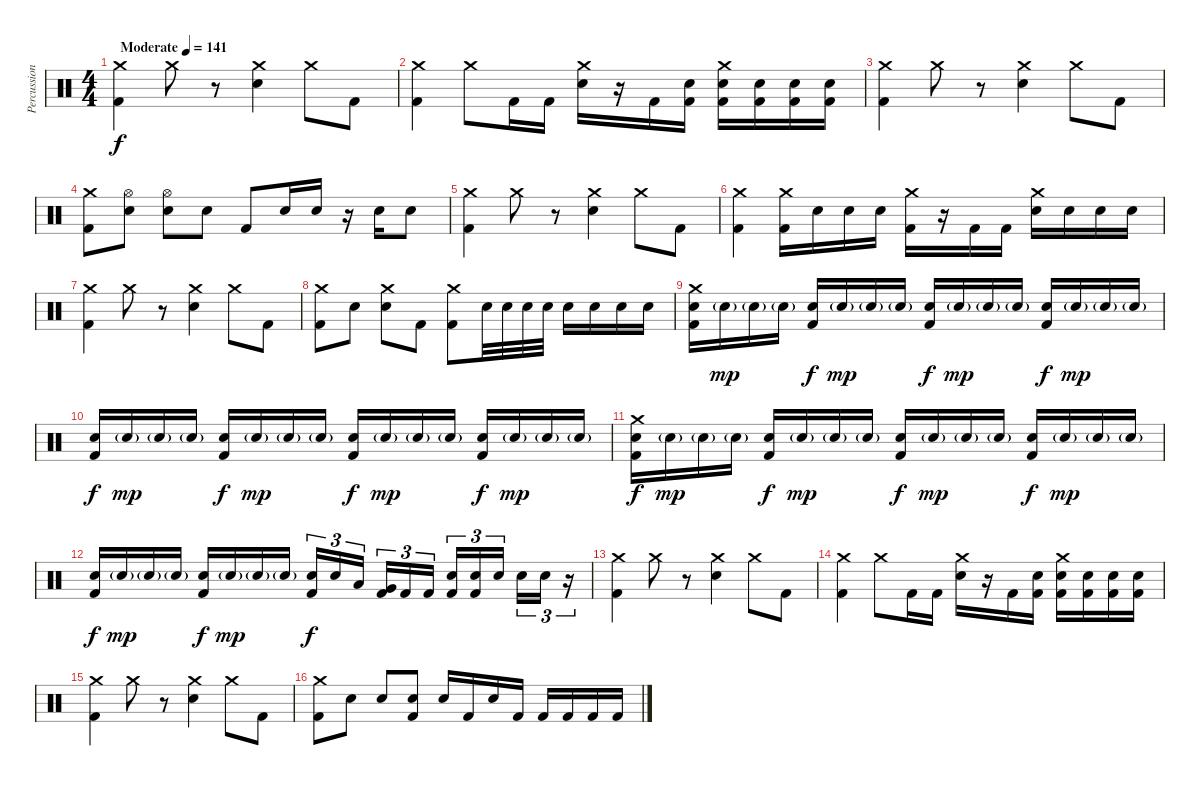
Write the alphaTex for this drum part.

\track ("Percussion" "Percussion") {instrument percussion}
\staff {score}
\articulation defaults
\ts (4 4)
\tempo (141 "Moderate")
\clef neutral
\ks c
("Crash medium (hit)" "Kick (hit) 2").4{dy f} "Crash medium (hit)".8 r.8 ("Crash medium (hit)" "Electric Snare (hit)").4 "Crash medium (hit)".8 "Kick (hit) 2".8 |
("Crash medium (hit)" "Kick (hit) 2").4 "Crash medium (hit)".8 "Kick (hit) 2".16 "Kick (hit) 2".16 ("Crash medium (hit)" "Electric Snare (hit)").16 r.16 "Kick (hit) 2".16 ("Electric Snare (hit)" "Kick (hit) 2").16 ("Crash medium (hit)" "Electric Snare (hit)" "Kick (hit) 2").16 ("Electric Snare (hit)" "Kick (hit) 2").16 ("Electric Snare (hit)" "Kick (hit) 2").16 ("Electric Snare (hit)" "Kick (hit) 2").16 |
("Crash medium (hit)" "Kick (hit) 2").4 "Crash medium (hit)".8 r.8 ("Crash medium (hit)" "Electric Snare (hit)").4 "Crash medium (hit)".8 "Kick (hit) 2".8 |
("Crash medium (hit)" "Kick (hit) 2").8 ("Hi-Hat (open)" "Electric Snare (hit)").8 ("Hi-Hat (open)" "Electric Snare (hit)").8 "Electric Snare (hit)".8 "Kick (hit) 2".8 "Electric Snare (hit)".16 "Electric Snare (hit)".16 r.16 "Electric Snare (hit)".16 "Electric Snare (hit)".8 |
("Crash medium (hit)" "Kick (hit) 2").4 "Crash medium (hit)".8 r.8 ("Crash medium (hit)" "Electric Snare (hit)").4 "Crash medium (hit)".8 "Kick (hit) 2".8 |
("Crash medium (hit)" "Kick (hit) 2").4 ("Crash medium (hit)" "Kick (hit) 2").16 "Electric Snare (hit)".16 "Electric Snare (hit)".16 "Electric Snare (hit)".16 ("Crash medium (hit)" "Kick (hit) 2").16 r.16 "Kick (hit) 2".16 "Kick (hit) 2".16 ("Crash medium (hit)" "Electric Snare (hit)").16 "Electric Snare (hit)".16 "Electric Snare (hit)".16 "Electric Snare (hit)".16 |
("Crash medium (hit)" "Kick (hit) 2").4 "Crash medium (hit)".8 r.8 ("Crash medium (hit)" "Electric Snare (hit)").4 "Crash medium (hit)".8 "Kick (hit) 2".8 |
("Crash medium (hit)" "Kick (hit) 2").8 "Electric Snare (hit)".8 ("Crash medium (hit)" "Electric Snare (hit)").8 "Kick (hit) 2".8 ("Crash medium (hit)" "Kick (hit) 2").8 "Electric Snare (hit)".32 "Electric Snare (hit)".32 "Electric Snare (hit)".32 "Electric Snare (hit)".32 "Electric Snare (hit)".16 "Electric Snare (hit)".16 "Electric Snare (hit)".16 "Electric Snare (hit)".16 |
("Electric Snare (hit)" "Crash medium (hit)" "Kick (hit) 2").16 "Electric Snare (hit)"{g}.16{dy mp} "Electric Snare (hit)"{g}.16 "Electric Snare (hit)"{g}.16 ("Electric Snare (hit)" "Kick (hit) 2").16{dy f} "Electric Snare (hit)"{g}.16{dy mp} "Electric Snare (hit)"{g}.16 "Electric Snare (hit)"{g}.16 ("Electric Snare (hit)" "Kick (hit) 2").16{dy f} "Electric Snare (hit)"{g}.16{dy mp} "Electric Snare (hit)"{g}.16 "Electric Snare (hit)"{g}.16 ("Electric Snare (hit)" "Kick (hit) 2").16{dy f} "Electric Snare (hit)"{g}.16{dy mp} "Electric Snare (hit)"{g}.16 "Electric Snare (hit)"{g}.16 |
("Electric Snare (hit)" "Kick (hit) 2").16{dy f} "Electric Snare (hit)"{g}.16{dy mp} "Electric Snare (hit)"{g}.16 "Electric Snare (hit)"{g}.16 ("Electric Snare (hit)" "Kick (hit) 2").16{dy f} "Electric Snare (hit)"{g}.16{dy mp} "Electric Snare (hit)"{g}.16 "Electric Snare (hit)"{g}.16 ("Electric Snare (hit)" "Kick (hit) 2").16{dy f} "Electric Snare (hit)"{g}.16{dy mp} "Electric Snare (hit)"{g}.16 "Electric Snare (hit)"{g}.16 ("Electric Snare (hit)" "Kick (hit) 2").16{dy f} "Electric Snare (hit)"{g}.16{dy mp} "Electric Snare (hit)"{g}.16 "Electric Snare (hit)"{g}.16 |
("Electric Snare (hit)" "Crash medium (hit)" "Kick (hit) 2").16{dy f} "Electric Snare (hit)"{g}.16{dy mp} "Electric Snare (hit)"{g}.16 "Electric Snare (hit)"{g}.16 ("Electric Snare (hit)" "Kick (hit) 2").16{dy f} "Electric Snare (hit)"{g}.16{dy mp} "Electric Snare (hit)"{g}.16 "Electric Snare (hit)"{g}.16 ("Electric Snare (hit)" "Kick (hit) 2").16{dy f} "Electric Snare (hit)"{g}.16{dy mp} "Electric Snare (hit)"{g}.16 "Electric Snare (hit)"{g}.16 ("Electric Snare (hit)" "Kick (hit) 2").16{dy f} "Electric Snare (hit)"{g}.16{dy mp} "Electric Snare (hit)"{g}.16 "Electric Snare (hit)"{g}.16 |
("Electric Snare (hit)" "Kick (hit) 2").16{dy f} "Electric Snare (hit)"{g}.16{dy mp} "Electric Snare (hit)"{g}.16 "Electric Snare (hit)"{g}.16 ("Electric Snare (hit)" "Kick (hit) 2").16{dy f} "Electric Snare (hit)"{g}.16{dy mp} "Electric Snare (hit)"{g}.16 "Electric Snare (hit)"{g}.16 ("Electric Snare (hit)" "Kick (hit) 2").16{tu (3 2) dy f} "Electric Snare (hit)".16{tu (3 2)} "Low Tom (hit)".16{tu (3 2) beam splitsecondary} ("Very Low Tom (hit)" "Kick (hit) 2").16{tu (3 2)} "Kick (hit) 2".16{tu (3 2)} "Kick (hit) 2".16{tu (3 2)} ("Electric Snare (hit)" "Kick (hit) 2").16{tu (3 2)} ("Electric Snare (hit)" "Kick (hit) 2").16{tu (3 2)} "Electric Snare (hit)".16{tu (3 2) beam splitsecondary} "Electric Snare (hit)".16{tu (3 2)} "Electric Snare (hit)".16{tu (3 2)} r.16{tu (3 2)} |
("Crash medium (hit)" "Kick (hit) 2").4 "Crash medium (hit)".8 r.8 ("Crash medium (hit)" "Electric Snare (hit)").4 "Crash medium (hit)".8 "Kick (hit) 2".8 |
("Crash medium (hit)" "Kick (hit) 2").4 "Crash medium (hit)".8 "Kick (hit) 2".16 "Kick (hit) 2".16 ("Crash medium (hit)" "Electric Snare (hit)").16 r.16 "Kick (hit) 2".16 ("Electric Snare (hit)" "Kick (hit) 2").16 ("Crash medium (hit)" "Electric Snare (hit)" "Kick (hit) 2").16 ("Electric Snare (hit)" "Kick (hit) 2").16 ("Electric Snare (hit)" "Kick (hit) 2").16 ("Electric Snare (hit)" "Kick (hit) 2").16 |
("Crash medium (hit)" "Kick (hit) 2").4 "Crash medium (hit)".8 r.8 ("Crash medium (hit)" "Electric Snare (hit)").4 "Crash medium (hit)".8 "Kick (hit) 2".8 |
("Crash medium (hit)" "Kick (hit) 2").8 "Electric Snare (hit)".8 "Electric Snare (hit)".8 ("Electric Snare (hit)" "Kick (hit) 2").8 "Electric Snare (hit)".16 "Kick (hit) 2".16 "Electric Snare (hit)".16 "Kick (hit) 2".16 "Kick (hit) 2".16 "Kick (hit) 2".16 "Kick (hit) 2".16 "Kick (hit) 2".16
